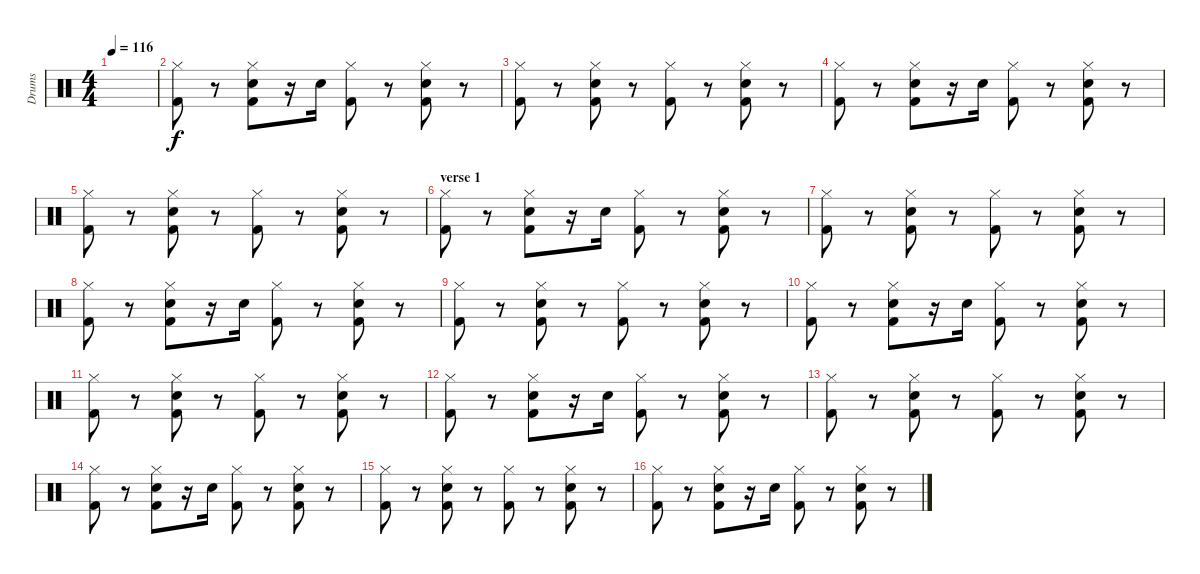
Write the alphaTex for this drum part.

\track ("Drums" "Drums") {instrument percussion}
\staff {score}
\articulation defaults
\ts (4 4)
\tempo 116
\clef neutral
\ks c
|
("Hi-Hat (closed)" "Kick (hit) 2").8 r.8 ("Hi-Hat (closed)" "Snare (hit) 2" "Kick (hit) 2").8 r.16 "Snare (hit) 2".16 ("Hi-Hat (closed)" "Kick (hit) 2").8 r.8 ("Hi-Hat (closed)" "Snare (hit) 2" "Kick (hit) 2").8 r.8 |
("Hi-Hat (closed)" "Kick (hit) 2").8 r.8 ("Hi-Hat (closed)" "Snare (hit) 2" "Kick (hit) 2").8 r.8 ("Hi-Hat (closed)" "Kick (hit) 2").8 r.8 ("Hi-Hat (closed)" "Snare (hit) 2" "Kick (hit) 2").8 r.8 |
("Hi-Hat (closed)" "Kick (hit) 2").8 r.8 ("Hi-Hat (closed)" "Snare (hit) 2" "Kick (hit) 2").8 r.16 "Snare (hit) 2".16 ("Hi-Hat (closed)" "Kick (hit) 2").8 r.8 ("Hi-Hat (closed)" "Snare (hit) 2" "Kick (hit) 2").8 r.8 |
("Hi-Hat (closed)" "Kick (hit) 2").8 r.8 ("Hi-Hat (closed)" "Snare (hit) 2" "Kick (hit) 2").8 r.8 ("Hi-Hat (closed)" "Kick (hit) 2").8 r.8 ("Hi-Hat (closed)" "Snare (hit) 2" "Kick (hit) 2").8 r.8 |
\section ("" "verse 1")
("Hi-Hat (closed)" "Kick (hit) 2").8 r.8 ("Hi-Hat (closed)" "Snare (hit) 2" "Kick (hit) 2").8 r.16 "Snare (hit) 2".16 ("Hi-Hat (closed)" "Kick (hit) 2").8 r.8 ("Hi-Hat (closed)" "Snare (hit) 2" "Kick (hit) 2").8 r.8 |
("Hi-Hat (closed)" "Kick (hit) 2").8 r.8 ("Hi-Hat (closed)" "Snare (hit) 2" "Kick (hit) 2").8 r.8 ("Hi-Hat (closed)" "Kick (hit) 2").8 r.8 ("Hi-Hat (closed)" "Snare (hit) 2" "Kick (hit) 2").8 r.8 |
("Hi-Hat (closed)" "Kick (hit) 2").8 r.8 ("Hi-Hat (closed)" "Snare (hit) 2" "Kick (hit) 2").8 r.16 "Snare (hit) 2".16 ("Hi-Hat (closed)" "Kick (hit) 2").8 r.8 ("Hi-Hat (closed)" "Snare (hit) 2" "Kick (hit) 2").8 r.8 |
("Hi-Hat (closed)" "Kick (hit) 2").8 r.8 ("Hi-Hat (closed)" "Snare (hit) 2" "Kick (hit) 2").8 r.8 ("Hi-Hat (closed)" "Kick (hit) 2").8 r.8 ("Hi-Hat (closed)" "Snare (hit) 2" "Kick (hit) 2").8 r.8 |
("Hi-Hat (closed)" "Kick (hit) 2").8 r.8 ("Hi-Hat (closed)" "Snare (hit) 2" "Kick (hit) 2").8 r.16 "Snare (hit) 2".16 ("Hi-Hat (closed)" "Kick (hit) 2").8 r.8 ("Hi-Hat (closed)" "Snare (hit) 2" "Kick (hit) 2").8 r.8 |
("Hi-Hat (closed)" "Kick (hit) 2").8 r.8 ("Hi-Hat (closed)" "Snare (hit) 2" "Kick (hit) 2").8 r.8 ("Hi-Hat (closed)" "Kick (hit) 2").8 r.8 ("Hi-Hat (closed)" "Snare (hit) 2" "Kick (hit) 2").8 r.8 |
("Hi-Hat (closed)" "Kick (hit) 2").8 r.8 ("Hi-Hat (closed)" "Snare (hit) 2" "Kick (hit) 2").8 r.16 "Snare (hit) 2".16 ("Hi-Hat (closed)" "Kick (hit) 2").8 r.8 ("Hi-Hat (closed)" "Snare (hit) 2" "Kick (hit) 2").8 r.8 |
("Hi-Hat (closed)" "Kick (hit) 2").8 r.8 ("Hi-Hat (closed)" "Snare (hit) 2" "Kick (hit) 2").8 r.8 ("Hi-Hat (closed)" "Kick (hit) 2").8 r.8 ("Hi-Hat (closed)" "Snare (hit) 2" "Kick (hit) 2").8 r.8 |
("Hi-Hat (closed)" "Kick (hit) 2").8 r.8 ("Hi-Hat (closed)" "Snare (hit) 2" "Kick (hit) 2").8 r.16 "Snare (hit) 2".16 ("Hi-Hat (closed)" "Kick (hit) 2").8 r.8 ("Hi-Hat (closed)" "Snare (hit) 2" "Kick (hit) 2").8 r.8 |
("Hi-Hat (closed)" "Kick (hit) 2").8 r.8 ("Hi-Hat (closed)" "Snare (hit) 2" "Kick (hit) 2").8 r.8 ("Hi-Hat (closed)" "Kick (hit) 2").8 r.8 ("Hi-Hat (closed)" "Snare (hit) 2" "Kick (hit) 2").8 r.8 |
("Hi-Hat (closed)" "Kick (hit) 2").8 r.8 ("Hi-Hat (closed)" "Snare (hit) 2" "Kick (hit) 2").8 r.16 "Snare (hit) 2".16 ("Hi-Hat (closed)" "Kick (hit) 2").8 r.8 ("Hi-Hat (closed)" "Snare (hit) 2" "Kick (hit) 2").8 r.8
